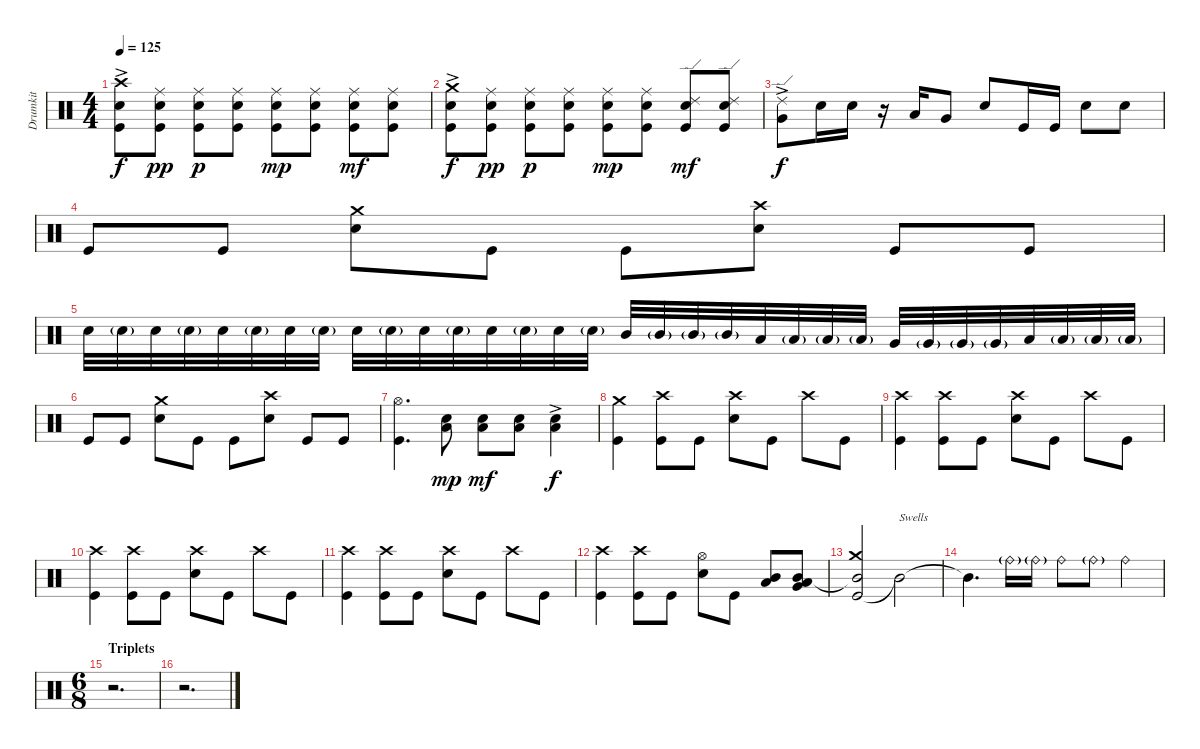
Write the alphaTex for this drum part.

\track ("Drumkit" "Drumkit") {instrument percussion}
\staff {score}
\articulation defaults
\ts (4 4)
\tempo 125
\clef neutral
\ks c
("Kick (hit)"{ac} "Snare (hit) 2" "Crash high (hit)").8{dy f} ("Ride (middle)" "Kick (hit)" "Snare (hit) 2").8{dy pp} ("Ride (middle)" "Kick (hit)" "Snare (hit) 2").8{dy p} ("Ride (middle)" "Kick (hit)" "Snare (hit) 2").8 ("Ride (middle)" "Kick (hit)" "Snare (hit) 2").8{dy mp} ("Ride (middle)" "Kick (hit)" "Snare (hit) 2").8 ("Ride (middle)" "Kick (hit)" "Snare (hit) 2").8{dy mf} ("Ride (middle)" "Kick (hit)" "Snare (hit) 2").8 |
("Crash medium (hit)" "Kick (hit)"{ac} "Snare (hit) 2").8{dy f} ("Ride (middle)" "Kick (hit)" "Snare (hit) 2").8{dy pp} ("Ride (middle)" "Kick (hit)" "Snare (hit) 2").8{dy p} ("Ride (middle)" "Kick (hit)" "Snare (hit) 2").8 ("Ride (middle)" "Kick (hit)" "Snare (hit) 2").8{dy mp} ("Ride (middle)" "Kick (hit)" "Snare (hit) 2").8 ("Ride (edge) 2" "Kick (hit)" "Snare (hit) 2").8{dy mf} ("Ride (edge) 2" "Kick (hit)" "Snare (hit) 2").8 |
("Very Low Tom (hit)" "Ride (edge) 2"{ac}).8{dy f} "Snare (hit) 2".16 "Snare (hit) 2".16 r.16 "Low Tom (hit)".16 "Very Low Tom (hit)".8 "Snare (hit) 2".8 "Kick (hit)".16 "Kick (hit)".16 "Snare (hit) 2".8 "Snare (hit) 2".8 |
"Kick (hit)".8 "Kick (hit)".8 ("Snare (hit) 2" "Crash medium (hit)").8 "Kick (hit)".8 "Kick (hit)".8 ("Snare (hit) 2" "Crash high (hit)").8 "Kick (hit)".8 "Kick (hit)".8 |
"Snare (hit) 2".32 "Snare (hit) 2"{g}.32 "Snare (hit) 2".32 "Snare (hit) 2"{g}.32 "Snare (hit) 2".32 "Snare (hit) 2"{g}.32 "Snare (hit) 2".32 "Snare (hit) 2"{g}.32 "Snare (hit) 2".32 "Snare (hit) 2"{g}.32 "Snare (hit) 2".32 "Snare (hit) 2"{g}.32 "Snare (hit) 2".32 "Snare (hit) 2"{g}.32 "Snare (hit) 2".32 "Snare (hit) 2"{g}.32 "Mid Tom (hit)".32 "Mid Tom (hit)"{g}.32 "Mid Tom (hit)"{g}.32 "Mid Tom (hit)"{g}.32 "Low Tom (hit)".32 "Low Tom (hit)"{g}.32 "Low Tom (hit)"{g}.32 "Low Tom (hit)"{g}.32 "Very Low Tom (hit)".32 "Very Low Tom (hit)"{g}.32 "Very Low Tom (hit)"{g}.32 "Very Low Tom (hit)"{g}.32 "Low Floor Tom (hit)".32 "Low Floor Tom (hit)"{g}.32 "Low Floor Tom (hit)"{g}.32 "Low Floor Tom (hit)"{g}.32 |
"Kick (hit)".8 "Kick (hit)".8 ("Snare (hit) 2" "Crash medium (hit)").8 "Kick (hit)".8 "Kick (hit)".8 ("Snare (hit) 2" "Crash high (hit)").8 "Kick (hit)".8 "Kick (hit)".8 |
("Kick (hit)" "Hi-Hat (open)").4{d} ("Snare (hit) 2" "Low Floor Tom (hit)").8{dy mp} ("Snare (hit) 2" "Low Floor Tom (hit)").8{dy mf} ("Snare (hit) 2" "Low Floor Tom (hit)").8 ("Snare (hit) 2"{ac} "Low Floor Tom (hit)").4{dy f} |
("Kick (hit)" "Crash medium (hit)").4 ("Kick (hit)" "Crash high (hit)").8 "Kick (hit)".8 ("Snare (hit) 2" "Crash high (hit)").8 "Kick (hit)".8 "Crash high (hit)".8 "Kick (hit)".8 |
("Kick (hit)" "Crash high (hit)").4 ("Kick (hit)" "Crash high (hit)").8 "Kick (hit)".8 ("Snare (hit) 2" "Crash high (hit)").8 "Kick (hit)".8 "Crash high (hit)".8 "Kick (hit)".8 |
("Kick (hit)" "Crash high (hit)").4 ("Kick (hit)" "Crash high (hit)").8 "Kick (hit)".8 ("Snare (hit) 2" "Crash high (hit)").8 "Kick (hit)".8 "Crash high (hit)".8 "Kick (hit)".8 |
("Kick (hit)" "Crash high (hit)").4 ("Kick (hit)" "Crash high (hit)").8 "Kick (hit)".8 ("Snare (hit) 2" "Crash high (hit)").8 "Kick (hit)".8 "Crash high (hit)".8 "Kick (hit)".8 |
("Kick (hit)" "Crash high (hit)").4 ("Kick (hit)" "Crash high (hit)").8 "Kick (hit)".8 ("Hi-Hat (open)" "Snare (hit) 2").8 "Kick (hit)".8 ("Mid Tom (hit)" "Low Tom (hit)").8 ("Low Tom (hit)" "Very Low Tom (hit)" "Mid Tom (hit)").8 |
("Kick (hit)" "Crash medium (hit)" "Mid Tom (hit)"{t}).2 "Mid Tom (hit)"{t}.2{txt "Swells"} |
"Mid Tom (hit)"{t}.4{d} "Ride (bell)"{g}.16 "Ride (bell)"{g}.16 "Ride (bell)".8 "Ride (bell)"{g}.8 "Ride (bell)".4 |
\ts (6 8)
\section ("" "Triplets")
r.2{d} |
r.2{d}
